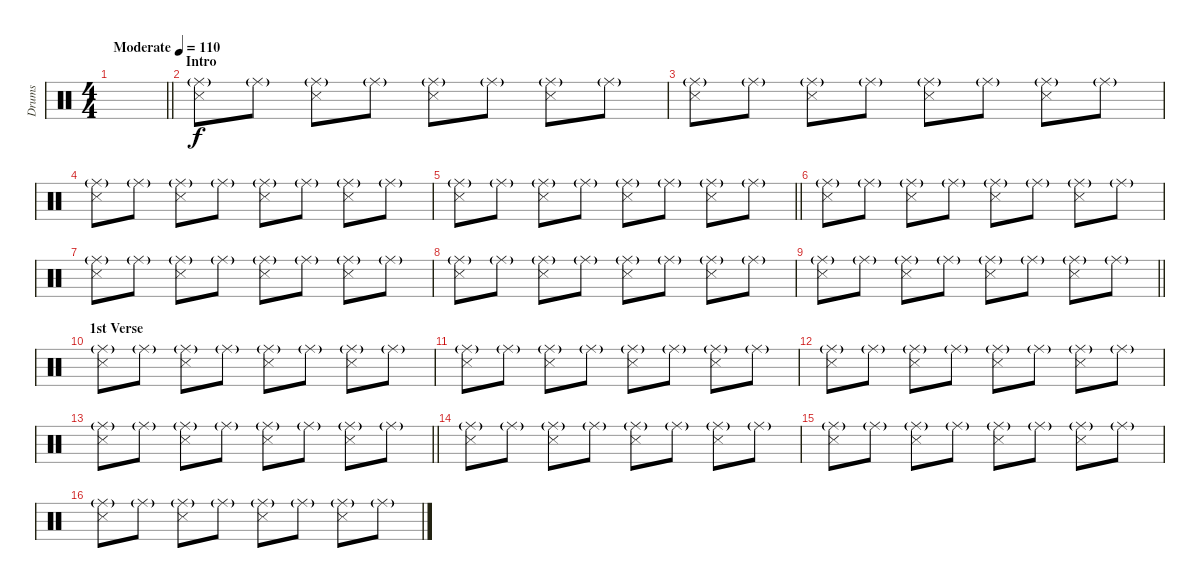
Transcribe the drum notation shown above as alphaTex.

\track ("Drums" "Drums") {instrument percussion}
\staff {score}
\articulation defaults
\ts (4 4)
\tempo (110 "Moderate")
\clef neutral
\barLineRight lightlight
\ks c
|
\section ("" "Intro")
("Snare (side stick) 3" "Ride (middle)"{g}).8 "Ride (middle)"{g}.8 ("Snare (side stick) 3" "Ride (middle)"{g}).8 "Ride (middle)"{g}.8 ("Snare (side stick) 3" "Ride (middle)"{g}).8 "Ride (middle)"{g}.8 ("Snare (side stick) 3" "Ride (middle)"{g}).8 "Ride (middle)"{g}.8 |
("Snare (side stick) 3" "Ride (middle)"{g}).8 "Ride (middle)"{g}.8 ("Snare (side stick) 3" "Ride (middle)"{g}).8 "Ride (middle)"{g}.8 ("Snare (side stick) 3" "Ride (middle)"{g}).8 "Ride (middle)"{g}.8 ("Snare (side stick) 3" "Ride (middle)"{g}).8 "Ride (middle)"{g}.8 |
("Snare (side stick) 3" "Ride (middle)"{g}).8 "Ride (middle)"{g}.8 ("Snare (side stick) 3" "Ride (middle)"{g}).8 "Ride (middle)"{g}.8 ("Snare (side stick) 3" "Ride (middle)"{g}).8 "Ride (middle)"{g}.8 ("Snare (side stick) 3" "Ride (middle)"{g}).8 "Ride (middle)"{g}.8 |
\barLineRight lightlight
("Snare (side stick) 3" "Ride (middle)"{g}).8 "Ride (middle)"{g}.8 ("Snare (side stick) 3" "Ride (middle)"{g}).8 "Ride (middle)"{g}.8 ("Snare (side stick) 3" "Ride (middle)"{g}).8 "Ride (middle)"{g}.8 ("Snare (side stick) 3" "Ride (middle)"{g}).8 "Ride (middle)"{g}.8 |
("Snare (side stick) 3" "Ride (middle)"{g}).8 "Ride (middle)"{g}.8 ("Snare (side stick) 3" "Ride (middle)"{g}).8 "Ride (middle)"{g}.8 ("Snare (side stick) 3" "Ride (middle)"{g}).8 "Ride (middle)"{g}.8 ("Snare (side stick) 3" "Ride (middle)"{g}).8 "Ride (middle)"{g}.8 |
("Snare (side stick) 3" "Ride (middle)"{g}).8 "Ride (middle)"{g}.8 ("Snare (side stick) 3" "Ride (middle)"{g}).8 "Ride (middle)"{g}.8 ("Snare (side stick) 3" "Ride (middle)"{g}).8 "Ride (middle)"{g}.8 ("Snare (side stick) 3" "Ride (middle)"{g}).8 "Ride (middle)"{g}.8 |
("Snare (side stick) 3" "Ride (middle)"{g}).8 "Ride (middle)"{g}.8 ("Snare (side stick) 3" "Ride (middle)"{g}).8 "Ride (middle)"{g}.8 ("Snare (side stick) 3" "Ride (middle)"{g}).8 "Ride (middle)"{g}.8 ("Snare (side stick) 3" "Ride (middle)"{g}).8 "Ride (middle)"{g}.8 |
\barLineRight lightlight
("Snare (side stick) 3" "Ride (middle)"{g}).8 "Ride (middle)"{g}.8 ("Snare (side stick) 3" "Ride (middle)"{g}).8 "Ride (middle)"{g}.8 ("Snare (side stick) 3" "Ride (middle)"{g}).8 "Ride (middle)"{g}.8 ("Snare (side stick) 3" "Ride (middle)"{g}).8 "Ride (middle)"{g}.8 |
\section ("" "1st Verse")
("Snare (side stick) 3" "Ride (middle)"{g}).8 "Ride (middle)"{g}.8 ("Snare (side stick) 3" "Ride (middle)"{g}).8 "Ride (middle)"{g}.8 ("Snare (side stick) 3" "Ride (middle)"{g}).8 "Ride (middle)"{g}.8 ("Snare (side stick) 3" "Ride (middle)"{g}).8 "Ride (middle)"{g}.8 |
("Snare (side stick) 3" "Ride (middle)"{g}).8 "Ride (middle)"{g}.8 ("Snare (side stick) 3" "Ride (middle)"{g}).8 "Ride (middle)"{g}.8 ("Snare (side stick) 3" "Ride (middle)"{g}).8 "Ride (middle)"{g}.8 ("Snare (side stick) 3" "Ride (middle)"{g}).8 "Ride (middle)"{g}.8 |
("Snare (side stick) 3" "Ride (middle)"{g}).8 "Ride (middle)"{g}.8 ("Snare (side stick) 3" "Ride (middle)"{g}).8 "Ride (middle)"{g}.8 ("Snare (side stick) 3" "Ride (middle)"{g}).8 "Ride (middle)"{g}.8 ("Snare (side stick) 3" "Ride (middle)"{g}).8 "Ride (middle)"{g}.8 |
\barLineRight lightlight
("Snare (side stick) 3" "Ride (middle)"{g}).8 "Ride (middle)"{g}.8 ("Snare (side stick) 3" "Ride (middle)"{g}).8 "Ride (middle)"{g}.8 ("Snare (side stick) 3" "Ride (middle)"{g}).8 "Ride (middle)"{g}.8 ("Snare (side stick) 3" "Ride (middle)"{g}).8 "Ride (middle)"{g}.8 |
("Snare (side stick) 3" "Ride (middle)"{g}).8 "Ride (middle)"{g}.8 ("Snare (side stick) 3" "Ride (middle)"{g}).8 "Ride (middle)"{g}.8 ("Snare (side stick) 3" "Ride (middle)"{g}).8 "Ride (middle)"{g}.8 ("Snare (side stick) 3" "Ride (middle)"{g}).8 "Ride (middle)"{g}.8 |
("Snare (side stick) 3" "Ride (middle)"{g}).8 "Ride (middle)"{g}.8 ("Snare (side stick) 3" "Ride (middle)"{g}).8 "Ride (middle)"{g}.8 ("Snare (side stick) 3" "Ride (middle)"{g}).8 "Ride (middle)"{g}.8 ("Snare (side stick) 3" "Ride (middle)"{g}).8 "Ride (middle)"{g}.8 |
("Snare (side stick) 3" "Ride (middle)"{g}).8 "Ride (middle)"{g}.8 ("Snare (side stick) 3" "Ride (middle)"{g}).8 "Ride (middle)"{g}.8 ("Snare (side stick) 3" "Ride (middle)"{g}).8 "Ride (middle)"{g}.8 ("Snare (side stick) 3" "Ride (middle)"{g}).8 "Ride (middle)"{g}.8
